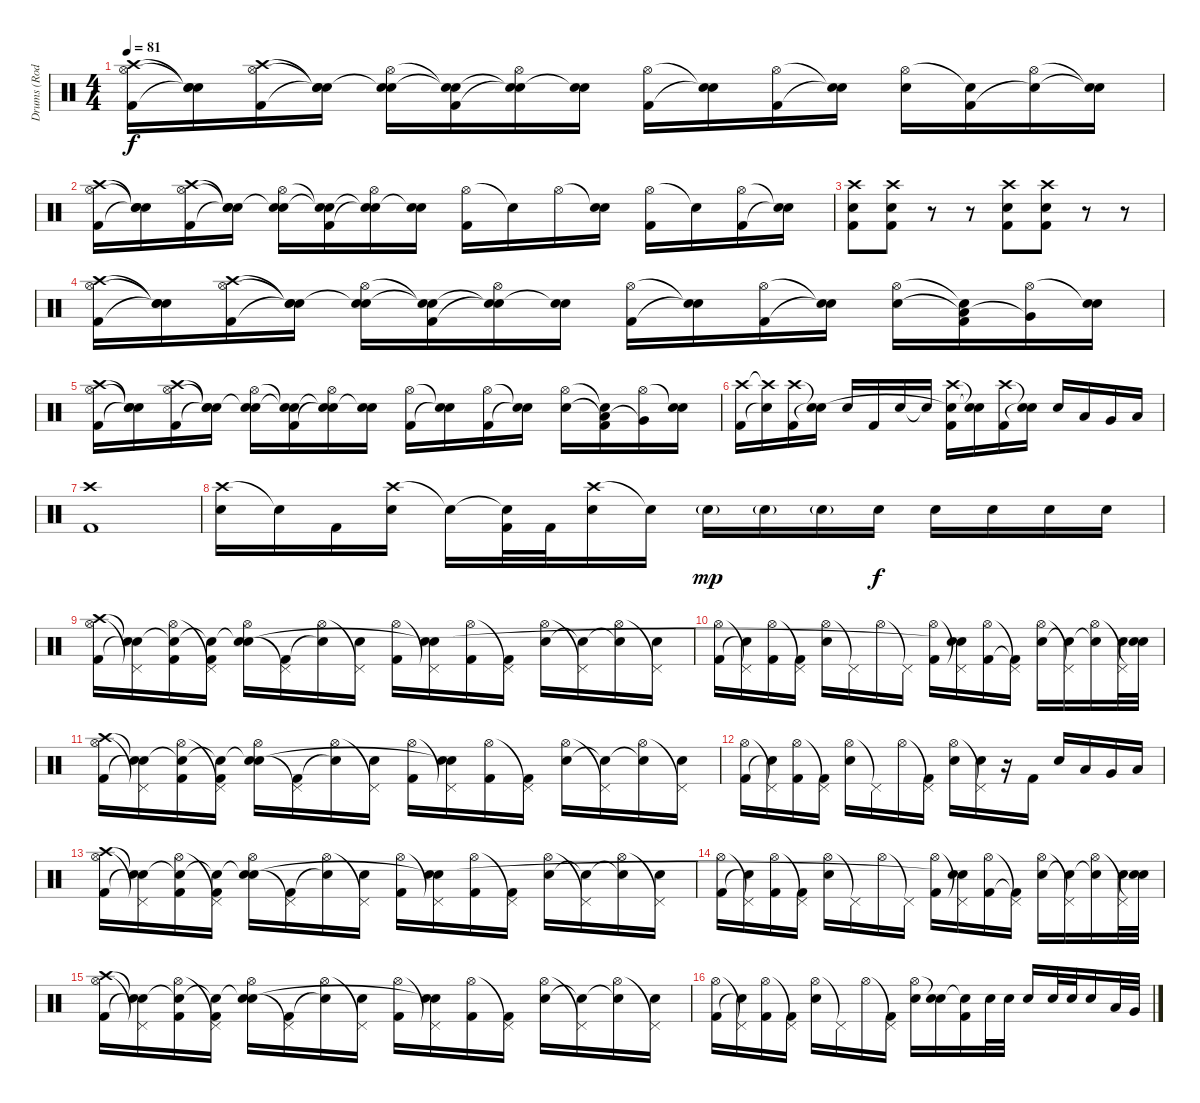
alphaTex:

\track ("Drums (Rod Bourdon)" "Drums (Rod") {instrument percussion}
\staff {score}
\articulation defaults
\ts (4 4)
\tempo 81
\clef neutral
\ks c
("Crash high (hit)" "Hi-Hat (open)" "Kick (hit) 2").16{dy f} ("Snare (hit)"{t} "Snare (hit)"{t} "Snare (hit)"{t}).16 ("Crash high (hit)" "Hi-Hat (open)" "Kick (hit) 2").16 ("Snare (hit)"{t} "Snare (hit)"{t} "Snare (hit)"{t}).16 ("Snare (hit)"{t} "Hi-Hat (open)" "Electric Snare (hit)").16 ("Snare (hit)"{t} "Snare (hit)"{t} "Kick (hit) 2").16 ("Snare (hit)"{t} "Hi-Hat (open)" "Snare (hit)"{t}).16 ("Snare (hit)"{t} "Electric Snare (hit)").16 ("Hi-Hat (open)" "Kick (hit) 2").16 ("Snare (hit)"{t} "Snare (hit)"{t}).16 ("Hi-Hat (open)" "Kick (hit) 2").16 ("Snare (hit)"{t} "Snare (hit)"{t}).16 ("Hi-Hat (open)" "Electric Snare (hit)").16 ("Snare (hit)"{t} "Kick (hit) 2").16 ("Hi-Hat (open)" "Snare (hit)"{t}).16 ("Snare (hit)"{t} "Snare (hit)"{t}).16 |
("Crash high (hit)" "Hi-Hat (open)" "Kick (hit) 2").16 ("Snare (hit)"{t} "Snare (hit)"{t} "Snare (hit)"{t}).16 ("Crash high (hit)" "Hi-Hat (open)" "Kick (hit) 2").16 ("Snare (hit)"{t} "Snare (hit)"{t} "Snare (hit)"{t}).16 ("Snare (hit)"{t} "Hi-Hat (open)" "Electric Snare (hit)").16 ("Snare (hit)"{t} "Snare (hit)"{t} "Kick (hit) 2").16 ("Snare (hit)"{t} "Hi-Hat (open)" "Snare (hit)"{t}).16 ("Snare (hit)"{t} "Electric Snare (hit)").16 ("Hi-Hat (open)" "Kick (hit) 2").16 "Snare (hit)"{t}.16 "Hi-Hat (open)".16 ("Snare (hit)"{t} "Electric Snare (hit)").16 ("Hi-Hat (open)" "Kick (hit) 2").16 "Snare (hit)"{t}.16 ("Hi-Hat (open)" "Kick (hit) 2").16 ("Snare (hit)"{t} "Snare (hit)"{t}).16 |
("Crash high (hit)" "Electric Snare (hit)" "Kick (hit) 2").8 ("Crash high (hit)" "Electric Snare (hit)" "Kick (hit) 2").8 r.8 r.8 ("Crash high (hit)" "Electric Snare (hit)" "Kick (hit) 2").8 ("Crash high (hit)" "Electric Snare (hit)" "Kick (hit) 2").8 r.8 r.8 |
("Crash high (hit)" "Hi-Hat (open)" "Kick (hit) 2").16 ("Snare (hit)"{t} "Snare (hit)"{t} "Snare (hit)"{t}).16 ("Crash high (hit)" "Hi-Hat (open)" "Kick (hit) 2").16 ("Snare (hit)"{t} "Snare (hit)"{t} "Snare (hit)"{t}).16 ("Snare (hit)"{t} "Hi-Hat (open)" "Electric Snare (hit)").16 ("Snare (hit)"{t} "Snare (hit)"{t} "Kick (hit) 2").16 ("Snare (hit)"{t} "Hi-Hat (open)" "Snare (hit)"{t}).16 ("Snare (hit)"{t} "Electric Snare (hit)").16 ("Hi-Hat (open)" "Kick (hit) 2").16 ("Snare (hit)"{t} "Snare (hit)"{t}).16 ("Hi-Hat (open)" "Kick (hit) 2").16 ("Snare (hit)"{t} "Snare (hit)"{t}).16 ("Hi-Hat (open)" "Electric Snare (hit)").16 ("Snare (hit)"{t} "Low Tom (hit)"{t} "Kick (hit) 2").16 ("Hi-Hat (open)" "Very Low Tom (hit)"{t}).16 ("Snare (hit)"{t} "Electric Snare (hit)").16 |
("Crash high (hit)" "Hi-Hat (open)" "Kick (hit) 2").16 ("Snare (hit)"{t} "Snare (hit)"{t} "Snare (hit)"{t}).16 ("Crash high (hit)" "Hi-Hat (open)" "Kick (hit) 2").16 ("Snare (hit)"{t} "Snare (hit)"{t} "Snare (hit)"{t}).16 ("Snare (hit)"{t} "Hi-Hat (open)" "Electric Snare (hit)").16 ("Snare (hit)"{t} "Snare (hit)"{t} "Kick (hit) 2").16 ("Snare (hit)"{t} "Hi-Hat (open)" "Snare (hit)"{t}).16 ("Snare (hit)"{t} "Electric Snare (hit)").16 ("Hi-Hat (open)" "Kick (hit) 2").16 ("Snare (hit)"{t} "Snare (hit)"{t}).16 ("Hi-Hat (open)" "Kick (hit) 2").16 ("Snare (hit)"{t} "Snare (hit)"{t}).16 ("Hi-Hat (open)" "Electric Snare (hit)").16 ("Snare (hit)"{t} "Low Tom (hit)"{t} "Kick (hit) 2").16 ("Hi-Hat (open)" "Very Low Tom (hit)"{t}).16 ("Snare (hit)"{t} "Electric Snare (hit)").16 |
("Crash high (hit)" "Kick (hit) 2").16 ("Crash high (hit)"{t} "Snare (hit)"{t}).16 ("Crash high (hit)" "Kick (hit) 2").16 ("Snare (hit)"{t} "Snare (hit)"{t}).16 "Electric Snare (hit)".16 "Kick (hit) 2".16 "Electric Snare (hit)".16 "Snare (hit)"{t}.16 ("Crash high (hit)" "Snare (hit)"{t} "Kick (hit) 2").16 ("Snare (hit)"{t} "Snare (hit)"{t}).16 ("Crash high (hit)" "Kick (hit) 2").16 ("Snare (hit)"{t} "Snare (hit)"{t}).16 "Electric Snare (hit)".16 "Low Tom (hit)".16 "Very Low Tom (hit)".16 "Low Floor Tom (hit)".16 |
("Crash high (hit)" "Kick (hit) 2").1 |
("Crash high (hit)" "Electric Snare (hit)").16 "Snare (hit)"{t}.16 "Kick (hit) 2".16 ("Crash high (hit)" "Electric Snare (hit)").16 "Snare (hit)"{t}.16 ("Snare (hit)"{t} "Kick (hit) 2").32 "Kick (hit) 2".32 ("Crash high (hit)" "Electric Snare (hit)").16 "Snare (hit)"{t}.16 "Electric Snare (hit)"{g}.16{dy mp} "Electric Snare (hit)"{g}.16 "Electric Snare (hit)"{g}.16 "Electric Snare (hit)".16{dy f} "Electric Snare (hit)".16 "Electric Snare (hit)".16 "Electric Snare (hit)".16 "Electric Snare (hit)".16 |
("Crash high (hit)" "Hi-Hat (open)" "Kick (hit) 2").16{volume 13} ("Snare (hit)"{t} "Pedal Hi-Hat (hit)"{t} "Snare (hit)"{t}).16 ("Snare (hit)"{t} "Hi-Hat (open)" "Kick (hit) 2").16 ("Snare (hit)"{t} "Pedal Hi-Hat (hit)"{t} "Kick (hit) 2").16 ("Snare (hit)"{t} "Hi-Hat (open)" "Electric Snare (hit)").16 ("Pedal Hi-Hat (hit)"{t} "Kick (hit) 2").16 ("Hi-Hat (open)" "Snare (hit)"{t}).16 ("Pedal Hi-Hat (hit)"{t} "Electric Snare (hit)").16 ("Hi-Hat (open)" "Kick (hit) 2").16 ("Pedal Hi-Hat (hit)"{t} "Electric Snare (hit)" "Snare (hit)"{t}).16 ("Hi-Hat (open)" "Kick (hit) 2").16 ("Pedal Hi-Hat (hit)"{t} "Kick (hit) 2").16 ("Hi-Hat (open)" "Electric Snare (hit)").16 ("Pedal Hi-Hat (hit)"{t} "Snare (hit)"{t}).16 ("Hi-Hat (open)" "Snare (hit)"{t}).16 ("Pedal Hi-Hat (hit)"{t} "Electric Snare (hit)").16 |
("Hi-Hat (open)" "Kick (hit) 2").16 ("Pedal Hi-Hat (hit)"{t} "Snare (hit)"{t}).16 ("Hi-Hat (open)" "Kick (hit) 2").16 ("Pedal Hi-Hat (hit)"{t} "Kick (hit) 2").16 ("Hi-Hat (open)" "Electric Snare (hit)").16 "Pedal Hi-Hat (hit)"{t}.16 "Hi-Hat (open)".16 "Pedal Hi-Hat (hit)"{t}.16 ("Hi-Hat (open)" "Kick (hit) 2").16 ("Pedal Hi-Hat (hit)"{t} "Electric Snare (hit)" "Snare (hit)"{t}).16 ("Hi-Hat (open)" "Kick (hit) 2").16 ("Pedal Hi-Hat (hit)"{t} "Kick (hit) 2"{t}).16 ("Hi-Hat (open)" "Electric Snare (hit)").16 ("Pedal Hi-Hat (hit)"{t} "Snare (hit)"{t}).16 ("Hi-Hat (open)" "Electric Snare (hit)"{t}).16 ("Pedal Hi-Hat (hit)"{t} "Electric Snare (hit)").32 ("Snare (hit)"{t} "Electric Snare (hit)").32 |
("Crash high (hit)" "Hi-Hat (open)" "Kick (hit) 2").16 ("Snare (hit)"{t} "Pedal Hi-Hat (hit)"{t} "Snare (hit)"{t}).16 ("Snare (hit)"{t} "Hi-Hat (open)" "Kick (hit) 2").16 ("Snare (hit)"{t} "Pedal Hi-Hat (hit)"{t} "Kick (hit) 2").16 ("Snare (hit)"{t} "Hi-Hat (open)" "Electric Snare (hit)").16 ("Pedal Hi-Hat (hit)"{t} "Kick (hit) 2").16 ("Hi-Hat (open)" "Snare (hit)"{t}).16 ("Pedal Hi-Hat (hit)"{t} "Electric Snare (hit)").16 ("Hi-Hat (open)" "Kick (hit) 2").16 ("Pedal Hi-Hat (hit)"{t} "Electric Snare (hit)" "Snare (hit)"{t}).16 ("Hi-Hat (open)" "Kick (hit) 2").16 ("Pedal Hi-Hat (hit)"{t} "Kick (hit) 2").16 ("Hi-Hat (open)" "Electric Snare (hit)").16 ("Pedal Hi-Hat (hit)"{t} "Snare (hit)"{t}).16 ("Hi-Hat (open)" "Snare (hit)"{t}).16 ("Pedal Hi-Hat (hit)"{t} "Electric Snare (hit)").16 |
("Hi-Hat (open)" "Kick (hit) 2").16 ("Pedal Hi-Hat (hit)"{t} "Snare (hit)"{t}).16 ("Hi-Hat (open)" "Kick (hit) 2").16 ("Pedal Hi-Hat (hit)"{t} "Kick (hit) 2").16 ("Hi-Hat (open)" "Electric Snare (hit)").16 "Pedal Hi-Hat (hit)"{t}.16 "Hi-Hat (open)".16 ("Pedal Hi-Hat (hit)"{t} "Kick (hit) 2").16 ("Hi-Hat (open)" "Electric Snare (hit)").16 ("Pedal Hi-Hat (hit)"{t} "Electric Snare (hit)").16 r.16 "Kick (hit) 2".16 "Electric Snare (hit)".16 "Low Tom (hit)".16 "Very Low Tom (hit)".16 "Low Floor Tom (hit)".16 |
("Crash high (hit)" "Hi-Hat (open)" "Kick (hit) 2").16{volume 13} ("Snare (hit)"{t} "Pedal Hi-Hat (hit)"{t} "Snare (hit)"{t}).16 ("Snare (hit)"{t} "Hi-Hat (open)" "Kick (hit) 2").16 ("Snare (hit)"{t} "Pedal Hi-Hat (hit)"{t} "Kick (hit) 2").16 ("Snare (hit)"{t} "Hi-Hat (open)" "Electric Snare (hit)").16 ("Pedal Hi-Hat (hit)"{t} "Kick (hit) 2").16 ("Hi-Hat (open)" "Snare (hit)"{t}).16 ("Pedal Hi-Hat (hit)"{t} "Electric Snare (hit)").16 ("Hi-Hat (open)" "Kick (hit) 2").16 ("Pedal Hi-Hat (hit)"{t} "Electric Snare (hit)" "Snare (hit)"{t}).16 ("Hi-Hat (open)" "Kick (hit) 2").16 ("Pedal Hi-Hat (hit)"{t} "Kick (hit) 2").16 ("Hi-Hat (open)" "Electric Snare (hit)").16 ("Pedal Hi-Hat (hit)"{t} "Snare (hit)"{t}).16 ("Hi-Hat (open)" "Snare (hit)"{t}).16 ("Pedal Hi-Hat (hit)"{t} "Electric Snare (hit)").16 |
("Hi-Hat (open)" "Kick (hit) 2").16 ("Pedal Hi-Hat (hit)"{t} "Snare (hit)"{t}).16 ("Hi-Hat (open)" "Kick (hit) 2").16 ("Pedal Hi-Hat (hit)"{t} "Kick (hit) 2").16 ("Hi-Hat (open)" "Electric Snare (hit)").16 "Pedal Hi-Hat (hit)"{t}.16 "Hi-Hat (open)".16 "Pedal Hi-Hat (hit)"{t}.16 ("Hi-Hat (open)" "Kick (hit) 2").16 ("Pedal Hi-Hat (hit)"{t} "Electric Snare (hit)" "Snare (hit)"{t}).16 ("Hi-Hat (open)" "Kick (hit) 2").16 ("Pedal Hi-Hat (hit)"{t} "Kick (hit) 2"{t}).16 ("Hi-Hat (open)" "Electric Snare (hit)").16 ("Pedal Hi-Hat (hit)"{t} "Snare (hit)"{t}).16 ("Hi-Hat (open)" "Electric Snare (hit)"{t}).16 ("Pedal Hi-Hat (hit)"{t} "Electric Snare (hit)").32 ("Snare (hit)"{t} "Electric Snare (hit)").32 |
("Crash high (hit)" "Hi-Hat (open)" "Kick (hit) 2").16 ("Snare (hit)"{t} "Pedal Hi-Hat (hit)"{t} "Snare (hit)"{t}).16 ("Snare (hit)"{t} "Hi-Hat (open)" "Kick (hit) 2").16 ("Snare (hit)"{t} "Pedal Hi-Hat (hit)"{t} "Kick (hit) 2").16 ("Snare (hit)"{t} "Hi-Hat (open)" "Electric Snare (hit)").16 ("Pedal Hi-Hat (hit)"{t} "Kick (hit) 2").16 ("Hi-Hat (open)" "Snare (hit)"{t}).16 ("Pedal Hi-Hat (hit)"{t} "Electric Snare (hit)").16 ("Hi-Hat (open)" "Kick (hit) 2").16 ("Pedal Hi-Hat (hit)"{t} "Electric Snare (hit)" "Snare (hit)"{t}).16 ("Hi-Hat (open)" "Kick (hit) 2").16 ("Pedal Hi-Hat (hit)"{t} "Kick (hit) 2").16 ("Hi-Hat (open)" "Electric Snare (hit)").16 ("Pedal Hi-Hat (hit)"{t} "Snare (hit)"{t}).16 ("Hi-Hat (open)" "Snare (hit)"{t}).16 ("Pedal Hi-Hat (hit)"{t} "Electric Snare (hit)").16 |
("Hi-Hat (open)" "Kick (hit) 2").16 ("Pedal Hi-Hat (hit)"{t} "Snare (hit)"{t}).16 ("Hi-Hat (open)" "Kick (hit) 2").16 ("Pedal Hi-Hat (hit)"{t} "Kick (hit) 2").16 ("Hi-Hat (open)" "Electric Snare (hit)").16 "Pedal Hi-Hat (hit)"{t}.16 "Hi-Hat (open)".16 ("Pedal Hi-Hat (hit)"{t} "Kick (hit) 2").16 ("Hi-Hat (open)" "Electric Snare (hit)").16 ("Snare (hit)"{t} "Electric Snare (hit)").16 ("Snare (hit)"{t} "Kick (hit) 2").16 "Electric Snare (hit)".32 "Electric Snare (hit)".32 "Electric Snare (hit)".16 "Electric Snare (hit)".32 "Electric Snare (hit)".32 "Electric Snare (hit)".16 "Low Tom (hit)".32 "Very Low Tom (hit)".32
